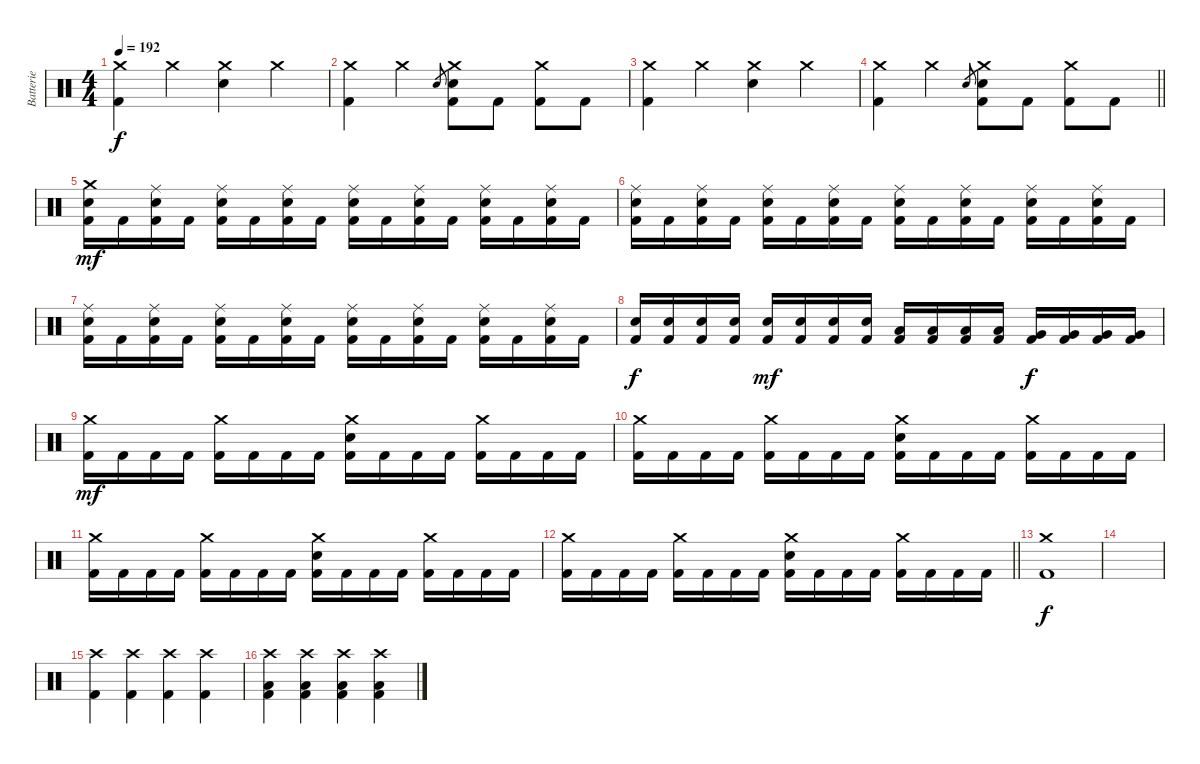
\track ("Batterie" "Batterie") {instrument percussion}
\staff {score}
\articulation defaults
\ts (4 4)
\tempo 192
\clef neutral
\ks c
("Crash medium (hit)" "Kick (hit) 2").4{dy f} "Crash medium (hit)".4 ("Crash medium (hit)" "Snare (hit) 2").4 "Crash medium (hit)".4 |
("Crash medium (hit)" "Kick (hit) 2").4 "Crash medium (hit)".4 "Snare (hit) 2".8{gr} ("Crash medium (hit)" "Snare (hit) 2" "Kick (hit) 2").8 "Kick (hit) 2".8 ("Crash medium (hit)" "Kick (hit) 2").8 "Kick (hit) 2".8 |
("Crash medium (hit)" "Kick (hit) 2").4 "Crash medium (hit)".4 ("Crash medium (hit)" "Snare (hit) 2").4 "Crash medium (hit)".4 |
\barLineRight lightlight
("Crash medium (hit)" "Kick (hit) 2").4 "Crash medium (hit)".4 "Snare (hit) 2".8{gr} ("Crash medium (hit)" "Snare (hit) 2" "Kick (hit) 2").8 "Kick (hit) 2".8 ("Crash medium (hit)" "Kick (hit) 2").8 "Kick (hit) 2".8 |
\section ("" "")
("Crash medium (hit)" "Snare (hit) 2" "Kick (hit) 2").16{dy mf} "Kick (hit) 2".16 ("Ride (middle)" "Snare (hit) 2" "Kick (hit) 2").16 "Kick (hit) 2".16 ("Ride (middle)" "Snare (hit) 2" "Kick (hit) 2").16 "Kick (hit) 2".16 ("Ride (middle)" "Snare (hit) 2" "Kick (hit) 2").16 "Kick (hit) 2".16 ("Ride (middle)" "Snare (hit) 2" "Kick (hit) 2").16 "Kick (hit) 2".16 ("Ride (middle)" "Snare (hit) 2" "Kick (hit) 2").16 "Kick (hit) 2".16 ("Ride (middle)" "Snare (hit) 2" "Kick (hit) 2").16 "Kick (hit) 2".16 ("Ride (middle)" "Snare (hit) 2" "Kick (hit) 2").16 "Kick (hit) 2".16 |
("Ride (middle)" "Snare (hit) 2" "Kick (hit) 2").16 "Kick (hit) 2".16 ("Ride (middle)" "Snare (hit) 2" "Kick (hit) 2").16 "Kick (hit) 2".16 ("Ride (middle)" "Snare (hit) 2" "Kick (hit) 2").16 "Kick (hit) 2".16 ("Ride (middle)" "Snare (hit) 2" "Kick (hit) 2").16 "Kick (hit) 2".16 ("Ride (middle)" "Snare (hit) 2" "Kick (hit) 2").16 "Kick (hit) 2".16 ("Ride (middle)" "Snare (hit) 2" "Kick (hit) 2").16 "Kick (hit) 2".16 ("Ride (middle)" "Snare (hit) 2" "Kick (hit) 2").16 "Kick (hit) 2".16 ("Ride (middle)" "Snare (hit) 2" "Kick (hit) 2").16 "Kick (hit) 2".16 |
("Ride (middle)" "Snare (hit) 2" "Kick (hit) 2").16 "Kick (hit) 2".16 ("Ride (middle)" "Snare (hit) 2" "Kick (hit) 2").16 "Kick (hit) 2".16 ("Ride (middle)" "Snare (hit) 2" "Kick (hit) 2").16 "Kick (hit) 2".16 ("Ride (middle)" "Snare (hit) 2" "Kick (hit) 2").16 "Kick (hit) 2".16 ("Ride (middle)" "Snare (hit) 2" "Kick (hit) 2").16 "Kick (hit) 2".16 ("Ride (middle)" "Snare (hit) 2" "Kick (hit) 2").16 "Kick (hit) 2".16 ("Ride (middle)" "Snare (hit) 2" "Kick (hit) 2").16 "Kick (hit) 2".16 ("Ride (middle)" "Snare (hit) 2" "Kick (hit) 2").16 "Kick (hit) 2".16 |
("Snare (hit) 2" "Kick (hit) 2").16{dy f} ("Snare (hit) 2" "Kick (hit) 2").16 ("Snare (hit) 2" "Kick (hit) 2").16 ("Snare (hit) 2" "Kick (hit) 2").16 ("Snare (hit) 2" "Kick (hit) 2").16{dy mf} ("Snare (hit) 2" "Kick (hit) 2").16 ("Snare (hit) 2" "Kick (hit) 2").16 ("Snare (hit) 2" "Kick (hit) 2").16 ("Low Tom (hit)" "Kick (hit) 2").16 ("Low Tom (hit)" "Kick (hit) 2").16 ("Low Tom (hit)" "Kick (hit) 2").16 ("Low Tom (hit)" "Kick (hit) 2").16 ("Very Low Tom (hit)" "Kick (hit) 2").16{dy f} ("Very Low Tom (hit)" "Kick (hit) 2").16 ("Very Low Tom (hit)" "Kick (hit) 2").16 ("Very Low Tom (hit)" "Kick (hit) 2").16 |
("Crash medium (hit)" "Kick (hit) 2").16{dy mf} "Kick (hit) 2".16 "Kick (hit) 2".16 "Kick (hit) 2".16 ("Crash medium (hit)" "Kick (hit) 2").16 "Kick (hit) 2".16 "Kick (hit) 2".16 "Kick (hit) 2".16 ("Crash medium (hit)" "Snare (hit) 2" "Kick (hit) 2").16 "Kick (hit) 2".16 "Kick (hit) 2".16 "Kick (hit) 2".16 ("Crash medium (hit)" "Kick (hit) 2").16 "Kick (hit) 2".16 "Kick (hit) 2".16 "Kick (hit) 2".16 |
("Crash medium (hit)" "Kick (hit) 2").16 "Kick (hit) 2".16 "Kick (hit) 2".16 "Kick (hit) 2".16 ("Crash medium (hit)" "Kick (hit) 2").16 "Kick (hit) 2".16 "Kick (hit) 2".16 "Kick (hit) 2".16 ("Crash medium (hit)" "Snare (hit) 2" "Kick (hit) 2").16 "Kick (hit) 2".16 "Kick (hit) 2".16 "Kick (hit) 2".16 ("Crash medium (hit)" "Kick (hit) 2").16 "Kick (hit) 2".16 "Kick (hit) 2".16 "Kick (hit) 2".16 |
("Crash medium (hit)" "Kick (hit) 2").16 "Kick (hit) 2".16 "Kick (hit) 2".16 "Kick (hit) 2".16 ("Crash medium (hit)" "Kick (hit) 2").16 "Kick (hit) 2".16 "Kick (hit) 2".16 "Kick (hit) 2".16 ("Crash medium (hit)" "Snare (hit) 2" "Kick (hit) 2").16 "Kick (hit) 2".16 "Kick (hit) 2".16 "Kick (hit) 2".16 ("Crash medium (hit)" "Kick (hit) 2").16 "Kick (hit) 2".16 "Kick (hit) 2".16 "Kick (hit) 2".16 |
\barLineRight lightlight
("Crash medium (hit)" "Kick (hit) 2").16 "Kick (hit) 2".16 "Kick (hit) 2".16 "Kick (hit) 2".16 ("Crash medium (hit)" "Kick (hit) 2").16 "Kick (hit) 2".16 "Kick (hit) 2".16 "Kick (hit) 2".16 ("Crash medium (hit)" "Snare (hit) 2" "Kick (hit) 2").16 "Kick (hit) 2".16 "Kick (hit) 2".16 "Kick (hit) 2".16 ("Crash medium (hit)" "Kick (hit) 2").16 "Kick (hit) 2".16 "Kick (hit) 2".16 "Kick (hit) 2".16 |
\section ("" "")
("Crash medium (hit)" "Kick (hit) 2").1{dy f} |
|
("Crash high (hit)" "Kick (hit) 2").4 ("Crash high (hit)" "Kick (hit) 2").4 ("Crash high (hit)" "Kick (hit) 2").4 ("Crash high (hit)" "Kick (hit) 2").4 |
("Crash high (hit)" "Low Tom (hit)" "Kick (hit) 2").4 ("Crash high (hit)" "Low Tom (hit)" "Kick (hit) 2").4 ("Crash high (hit)" "Low Tom (hit)" "Kick (hit) 2").4 ("Crash high (hit)" "Low Tom (hit)" "Kick (hit) 2").4
